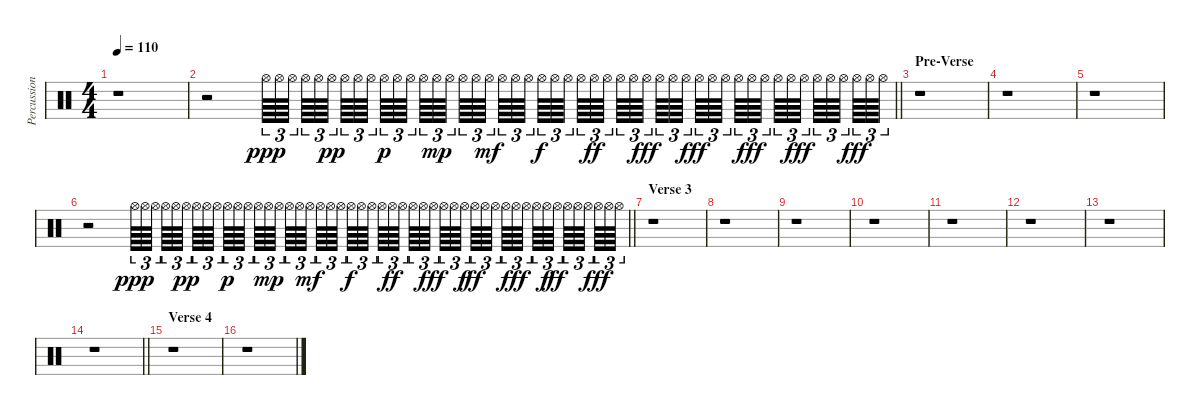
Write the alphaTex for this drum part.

\track ("Percussion" "Percussion") {instrument percussion}
\staff {score}
\articulation defaults
\ts (4 4)
\tempo 110
\clef neutral
\ks c
r.1{dy fff} |
\barLineRight lightlight
r.2 "Hi-Hat (open)".64{tu (3 2) dy ppp volume 14} "Hi-Hat (open)".64{tu (3 2)} "Hi-Hat (open)".64{tu (3 2)} "Hi-Hat (open)".64{tu (3 2)} "Hi-Hat (open)".64{tu (3 2)} "Hi-Hat (open)".64{tu (3 2) dy pp} "Hi-Hat (open)".64{tu (3 2)} "Hi-Hat (open)".64{tu (3 2)} "Hi-Hat (open)".64{tu (3 2)} "Hi-Hat (open)".64{tu (3 2) dy p} "Hi-Hat (open)".64{tu (3 2)} "Hi-Hat (open)".64{tu (3 2)} "Hi-Hat (open)".64{tu (3 2)} "Hi-Hat (open)".64{tu (3 2) dy mp} "Hi-Hat (open)".64{tu (3 2)} "Hi-Hat (open)".64{tu (3 2)} "Hi-Hat (open)".64{tu (3 2)} "Hi-Hat (open)".64{tu (3 2) dy mf} "Hi-Hat (open)".64{tu (3 2)} "Hi-Hat (open)".64{tu (3 2)} "Hi-Hat (open)".64{tu (3 2)} "Hi-Hat (open)".64{tu (3 2) dy f} "Hi-Hat (open)".64{tu (3 2)} "Hi-Hat (open)".64{tu (3 2)} "Hi-Hat (open)".64{tu (3 2)} "Hi-Hat (open)".64{tu (3 2) dy ff} "Hi-Hat (open)".64{tu (3 2)} "Hi-Hat (open)".64{tu (3 2)} "Hi-Hat (open)".64{tu (3 2)} "Hi-Hat (open)".64{tu (3 2) dy fff} "Hi-Hat (open)".64{tu (3 2)} "Hi-Hat (open)".64{tu (3 2)} "Hi-Hat (open)".64{tu (3 2) dy f} "Hi-Hat (open)".64{tu (3 2) dy ff} "Hi-Hat (open)".64{tu (3 2)} "Hi-Hat (open)".64{tu (3 2)} "Hi-Hat (open)".64{tu (3 2)} "Hi-Hat (open)".64{tu (3 2) dy fff} "Hi-Hat (open)".64{tu (3 2)} "Hi-Hat (open)".64{tu (3 2)} "Hi-Hat (open)".64{tu (3 2) dy f} "Hi-Hat (open)".64{tu (3 2) dy ff} "Hi-Hat (open)".64{tu (3 2)} "Hi-Hat (open)".64{tu (3 2)} "Hi-Hat (open)".64{tu (3 2)} "Hi-Hat (open)".64{tu (3 2) dy fff} "Hi-Hat (open)".64{tu (3 2)} "Hi-Hat (open)".64{tu (3 2)} |
\section ("" "Pre-Verse")
r.1 |
r.1 |
r.1 |
\barLineRight lightlight
r.2 "Hi-Hat (open)".64{tu (3 2) dy ppp volume 14} "Hi-Hat (open)".64{tu (3 2)} "Hi-Hat (open)".64{tu (3 2)} "Hi-Hat (open)".64{tu (3 2)} "Hi-Hat (open)".64{tu (3 2)} "Hi-Hat (open)".64{tu (3 2) dy pp} "Hi-Hat (open)".64{tu (3 2)} "Hi-Hat (open)".64{tu (3 2)} "Hi-Hat (open)".64{tu (3 2)} "Hi-Hat (open)".64{tu (3 2) dy p} "Hi-Hat (open)".64{tu (3 2)} "Hi-Hat (open)".64{tu (3 2)} "Hi-Hat (open)".64{tu (3 2)} "Hi-Hat (open)".64{tu (3 2) dy mp} "Hi-Hat (open)".64{tu (3 2)} "Hi-Hat (open)".64{tu (3 2)} "Hi-Hat (open)".64{tu (3 2)} "Hi-Hat (open)".64{tu (3 2) dy mf} "Hi-Hat (open)".64{tu (3 2)} "Hi-Hat (open)".64{tu (3 2)} "Hi-Hat (open)".64{tu (3 2)} "Hi-Hat (open)".64{tu (3 2) dy f} "Hi-Hat (open)".64{tu (3 2)} "Hi-Hat (open)".64{tu (3 2)} "Hi-Hat (open)".64{tu (3 2)} "Hi-Hat (open)".64{tu (3 2) dy ff} "Hi-Hat (open)".64{tu (3 2)} "Hi-Hat (open)".64{tu (3 2)} "Hi-Hat (open)".64{tu (3 2)} "Hi-Hat (open)".64{tu (3 2) dy fff} "Hi-Hat (open)".64{tu (3 2)} "Hi-Hat (open)".64{tu (3 2)} "Hi-Hat (open)".64{tu (3 2) dy f} "Hi-Hat (open)".64{tu (3 2) dy ff} "Hi-Hat (open)".64{tu (3 2)} "Hi-Hat (open)".64{tu (3 2)} "Hi-Hat (open)".64{tu (3 2)} "Hi-Hat (open)".64{tu (3 2) dy fff} "Hi-Hat (open)".64{tu (3 2)} "Hi-Hat (open)".64{tu (3 2)} "Hi-Hat (open)".64{tu (3 2) dy f} "Hi-Hat (open)".64{tu (3 2) dy ff} "Hi-Hat (open)".64{tu (3 2)} "Hi-Hat (open)".64{tu (3 2)} "Hi-Hat (open)".64{tu (3 2)} "Hi-Hat (open)".64{tu (3 2) dy fff} "Hi-Hat (open)".64{tu (3 2)} "Hi-Hat (open)".64{tu (3 2)} |
\section ("" "Verse 3")
r.1 |
r.1 |
r.1 |
r.1 |
r.1 |
r.1 |
r.1 |
\barLineRight lightlight
r.1 |
\section ("" "Verse 4")
r.1 |
r.1
